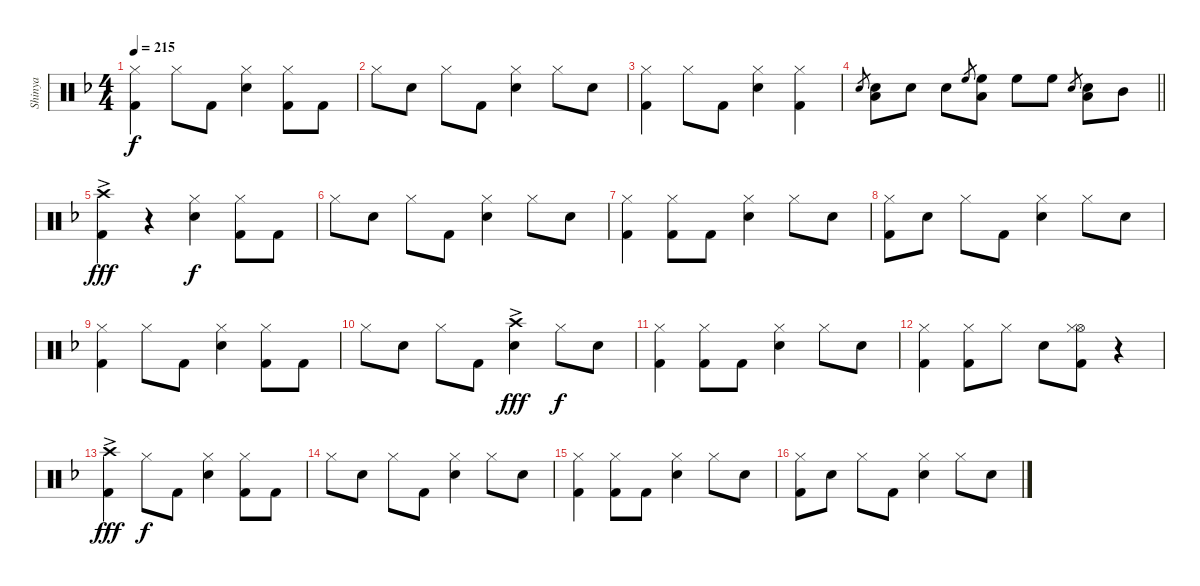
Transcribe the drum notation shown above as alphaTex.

\track ("Shinya" "Shinya") {instrument percussion}
\staff {score}
\articulation defaults
\ts (4 4)
\tempo 215
\clef neutral
\ks f
("Hi-Hat (closed)" "Kick (hit) 2").4{dy f} "Hi-Hat (closed)".8 "Kick (hit) 2".8 ("Hi-Hat (closed)" "Snare (hit) 2").4 ("Hi-Hat (closed)" "Kick (hit) 2").8 "Kick (hit) 2".8 |
"Hi-Hat (closed)".8 "Snare (hit) 2".8 "Hi-Hat (closed)".8 "Kick (hit) 2".8 ("Hi-Hat (closed)" "Snare (hit) 2").4 "Hi-Hat (closed)".8 "Snare (hit) 2".8 |
("Hi-Hat (closed)" "Kick (hit) 2").4 "Hi-Hat (closed)".8 "Kick (hit) 2".8 ("Hi-Hat (closed)" "Snare (hit) 2").4 ("Hi-Hat (closed)" "Kick (hit) 2").4 |
\barLineRight lightlight "Snare (hit) 2".8{gr}
("Snare (hit) 2" "Low Floor Tom (hit)").8 "Snare (hit) 2".8 "Snare (hit) 2".8 "High Floor Tom (hit)".8{gr} ("High Floor Tom (hit)" "Low Floor Tom (hit)").8 "High Floor Tom (hit)".8 "High Floor Tom (hit)".8 "Snare (hit) 2".8{gr} ("Snare (hit) 2" "Low Floor Tom (hit)").8 "Mid Tom (hit)".8 |
("Crash high (hit)"{ac} "Kick (hit) 2").4{dy fff} r.4 ("Hi-Hat (closed)" "Snare (hit) 2").4{dy f} ("Hi-Hat (closed)" "Kick (hit) 2").8 "Kick (hit) 2".8 |
"Hi-Hat (closed)".8 "Snare (hit) 2".8 "Hi-Hat (closed)".8 "Kick (hit) 2".8 ("Hi-Hat (closed)" "Snare (hit) 2").4 "Hi-Hat (closed)".8 "Snare (hit) 2".8 |
("Hi-Hat (closed)" "Kick (hit) 2").4 ("Hi-Hat (closed)" "Kick (hit) 2").8 "Kick (hit) 2".8 ("Hi-Hat (closed)" "Snare (hit) 2").4 "Hi-Hat (closed)".8 "Snare (hit) 2".8 |
("Hi-Hat (closed)" "Kick (hit) 2").8 "Snare (hit) 2".8 "Hi-Hat (closed)".8 "Kick (hit) 2".8 ("Hi-Hat (closed)" "Snare (hit) 2").4 "Hi-Hat (closed)".8 "Snare (hit) 2".8 |
("Hi-Hat (closed)" "Kick (hit) 2").4 "Hi-Hat (closed)".8 "Kick (hit) 2".8 ("Hi-Hat (closed)" "Snare (hit) 2").4 ("Hi-Hat (closed)" "Kick (hit) 2").8 "Kick (hit) 2".8 |
"Hi-Hat (closed)".8 "Snare (hit) 2".8 "Hi-Hat (closed)".8 "Kick (hit) 2".8 ("Crash high (hit)"{ac} "Snare (hit) 2").4{dy fff} "Hi-Hat (closed)".8{dy f} "Snare (hit) 2".8 |
("Hi-Hat (closed)" "Kick (hit) 2").4 ("Hi-Hat (closed)" "Kick (hit) 2").8 "Kick (hit) 2".8 ("Hi-Hat (closed)" "Snare (hit) 2").4 "Hi-Hat (closed)".8 "Snare (hit) 2".8 |
("Hi-Hat (closed)" "Kick (hit) 2").4 ("Hi-Hat (closed)" "Kick (hit) 2").8 "Hi-Hat (closed)".8 "Snare (hit) 2".8 ("Hi-Hat (open)" "Hi-Hat (closed)" "Kick (hit) 2").8 r.4 |
("Crash high (hit)"{ac} "Kick (hit) 2").4{dy fff} "Hi-Hat (closed)".8{dy f} "Kick (hit) 2".8 ("Hi-Hat (closed)" "Snare (hit) 2").4 ("Hi-Hat (closed)" "Kick (hit) 2").8 "Kick (hit) 2".8 |
"Hi-Hat (closed)".8 "Snare (hit) 2".8 "Hi-Hat (closed)".8 "Kick (hit) 2".8 ("Hi-Hat (closed)" "Snare (hit) 2").4 "Hi-Hat (closed)".8 "Snare (hit) 2".8 |
("Hi-Hat (closed)" "Kick (hit) 2").4 ("Hi-Hat (closed)" "Kick (hit) 2").8 "Kick (hit) 2".8 ("Hi-Hat (closed)" "Snare (hit) 2").4 "Hi-Hat (closed)".8 "Snare (hit) 2".8 |
("Hi-Hat (closed)" "Kick (hit) 2").8 "Snare (hit) 2".8 "Hi-Hat (closed)".8 "Kick (hit) 2".8 ("Hi-Hat (closed)" "Snare (hit) 2").4 "Hi-Hat (closed)".8 "Snare (hit) 2".8
